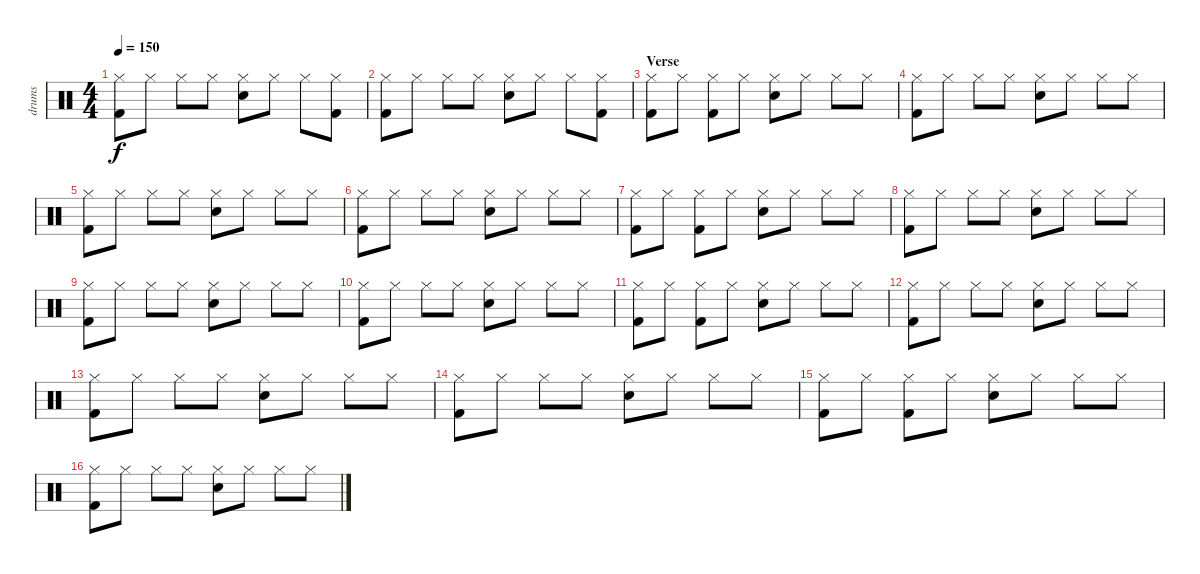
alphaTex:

\track ("drums" "drums") {instrument percussion}
\staff {score}
\articulation defaults
\ts (4 4)
\tempo 150
\clef neutral
\ks c
("Hi-Hat (closed)" "Kick (hit) 2").8{dy f} "Hi-Hat (closed)".8 "Hi-Hat (closed)".8 "Hi-Hat (closed)".8 ("Hi-Hat (closed)" "Snare (hit) 2").8 "Hi-Hat (closed)".8 "Hi-Hat (closed)".8 ("Hi-Hat (closed)" "Kick (hit) 2").8 |
("Hi-Hat (closed)" "Kick (hit) 2").8 "Hi-Hat (closed)".8 "Hi-Hat (closed)".8 "Hi-Hat (closed)".8 ("Hi-Hat (closed)" "Snare (hit) 2").8 "Hi-Hat (closed)".8 "Hi-Hat (closed)".8 ("Hi-Hat (closed)" "Kick (hit) 2").8 |
\section ("" "Verse")
("Hi-Hat (closed)" "Kick (hit) 2").8 "Hi-Hat (closed)".8 ("Hi-Hat (closed)" "Kick (hit) 2").8 "Hi-Hat (closed)".8 ("Hi-Hat (closed)" "Snare (hit) 2").8 "Hi-Hat (closed)".8 "Hi-Hat (closed)".8 "Hi-Hat (closed)".8 |
("Hi-Hat (closed)" "Kick (hit) 2").8 "Hi-Hat (closed)".8 "Hi-Hat (closed)".8 "Hi-Hat (closed)".8 ("Hi-Hat (closed)" "Snare (hit) 2").8 "Hi-Hat (closed)".8 "Hi-Hat (closed)".8 "Hi-Hat (closed)".8 |
("Hi-Hat (closed)" "Kick (hit) 2").8 "Hi-Hat (closed)".8 "Hi-Hat (closed)".8 "Hi-Hat (closed)".8 ("Hi-Hat (closed)" "Snare (hit) 2").8 "Hi-Hat (closed)".8 "Hi-Hat (closed)".8 "Hi-Hat (closed)".8 |
("Hi-Hat (closed)" "Kick (hit) 2").8 "Hi-Hat (closed)".8 "Hi-Hat (closed)".8 "Hi-Hat (closed)".8 ("Hi-Hat (closed)" "Snare (hit) 2").8 "Hi-Hat (closed)".8 "Hi-Hat (closed)".8 "Hi-Hat (closed)".8 |
("Hi-Hat (closed)" "Kick (hit) 2").8 "Hi-Hat (closed)".8 ("Hi-Hat (closed)" "Kick (hit) 2").8 "Hi-Hat (closed)".8 ("Hi-Hat (closed)" "Snare (hit) 2").8 "Hi-Hat (closed)".8 "Hi-Hat (closed)".8 "Hi-Hat (closed)".8 |
("Hi-Hat (closed)" "Kick (hit) 2").8 "Hi-Hat (closed)".8 "Hi-Hat (closed)".8 "Hi-Hat (closed)".8 ("Hi-Hat (closed)" "Snare (hit) 2").8 "Hi-Hat (closed)".8 "Hi-Hat (closed)".8 "Hi-Hat (closed)".8 |
("Hi-Hat (closed)" "Kick (hit) 2").8 "Hi-Hat (closed)".8 "Hi-Hat (closed)".8 "Hi-Hat (closed)".8 ("Hi-Hat (closed)" "Snare (hit) 2").8 "Hi-Hat (closed)".8 "Hi-Hat (closed)".8 "Hi-Hat (closed)".8 |
("Hi-Hat (closed)" "Kick (hit) 2").8 "Hi-Hat (closed)".8 "Hi-Hat (closed)".8 "Hi-Hat (closed)".8 ("Hi-Hat (closed)" "Snare (hit) 2").8 "Hi-Hat (closed)".8 "Hi-Hat (closed)".8 "Hi-Hat (closed)".8 |
("Hi-Hat (closed)" "Kick (hit) 2").8 "Hi-Hat (closed)".8 ("Hi-Hat (closed)" "Kick (hit) 2").8 "Hi-Hat (closed)".8 ("Hi-Hat (closed)" "Snare (hit) 2").8 "Hi-Hat (closed)".8 "Hi-Hat (closed)".8 "Hi-Hat (closed)".8 |
("Hi-Hat (closed)" "Kick (hit) 2").8 "Hi-Hat (closed)".8 "Hi-Hat (closed)".8 "Hi-Hat (closed)".8 ("Hi-Hat (closed)" "Snare (hit) 2").8 "Hi-Hat (closed)".8 "Hi-Hat (closed)".8 "Hi-Hat (closed)".8 |
("Hi-Hat (closed)" "Kick (hit) 2").8 "Hi-Hat (closed)".8 "Hi-Hat (closed)".8 "Hi-Hat (closed)".8 ("Hi-Hat (closed)" "Snare (hit) 2").8 "Hi-Hat (closed)".8 "Hi-Hat (closed)".8 "Hi-Hat (closed)".8 |
("Hi-Hat (closed)" "Kick (hit) 2").8 "Hi-Hat (closed)".8 "Hi-Hat (closed)".8 "Hi-Hat (closed)".8 ("Hi-Hat (closed)" "Snare (hit) 2").8 "Hi-Hat (closed)".8 "Hi-Hat (closed)".8 "Hi-Hat (closed)".8 |
("Hi-Hat (closed)" "Kick (hit) 2").8 "Hi-Hat (closed)".8 ("Hi-Hat (closed)" "Kick (hit) 2").8 "Hi-Hat (closed)".8 ("Hi-Hat (closed)" "Snare (hit) 2").8 "Hi-Hat (closed)".8 "Hi-Hat (closed)".8 "Hi-Hat (closed)".8 |
("Hi-Hat (closed)" "Kick (hit) 2").8 "Hi-Hat (closed)".8 "Hi-Hat (closed)".8 "Hi-Hat (closed)".8 ("Hi-Hat (closed)" "Snare (hit) 2").8 "Hi-Hat (closed)".8 "Hi-Hat (closed)".8 "Hi-Hat (closed)".8
